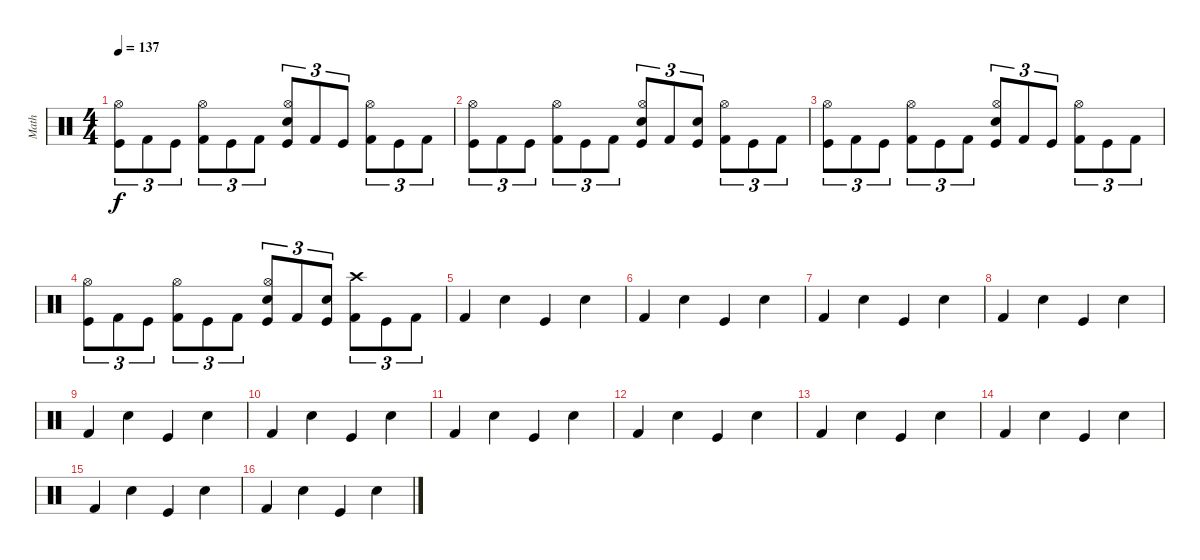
\track ("Math" "Math") {instrument percussion}
\staff {score}
\articulation defaults
\ts (4 4)
\tempo 137
\clef neutral
\ks c
("Kick (hit)" "Hi-Hat (open)").8{tu (3 2) dy f} "Kick (hit) 2".8{tu (3 2)} "Kick (hit)".8{tu (3 2)} ("Kick (hit) 2" "Hi-Hat (open)").8{tu (3 2)} "Kick (hit)".8{tu (3 2)} "Kick (hit) 2".8{tu (3 2)} ("Kick (hit)" "Snare (hit) 2" "Hi-Hat (open)").8{tu (3 2)} "Kick (hit) 2".8{tu (3 2)} "Kick (hit)".8{tu (3 2)} ("Kick (hit) 2" "Hi-Hat (open)").8{tu (3 2)} "Kick (hit)".8{tu (3 2)} "Kick (hit) 2".8{tu (3 2)} |
("Kick (hit)" "Hi-Hat (open)").8{tu (3 2)} "Kick (hit) 2".8{tu (3 2)} "Kick (hit)".8{tu (3 2)} ("Kick (hit) 2" "Hi-Hat (open)").8{tu (3 2)} "Kick (hit)".8{tu (3 2)} "Kick (hit) 2".8{tu (3 2)} ("Kick (hit)" "Snare (hit) 2" "Hi-Hat (open)").8{tu (3 2)} "Kick (hit) 2".8{tu (3 2)} ("Kick (hit)" "Snare (hit) 2").8{tu (3 2)} ("Kick (hit) 2" "Hi-Hat (open)").8{tu (3 2)} "Kick (hit)".8{tu (3 2)} "Kick (hit) 2".8{tu (3 2)} |
("Kick (hit)" "Hi-Hat (open)").8{tu (3 2)} "Kick (hit) 2".8{tu (3 2)} "Kick (hit)".8{tu (3 2)} ("Kick (hit) 2" "Hi-Hat (open)").8{tu (3 2)} "Kick (hit)".8{tu (3 2)} "Kick (hit) 2".8{tu (3 2)} ("Kick (hit)" "Snare (hit) 2" "Hi-Hat (open)").8{tu (3 2)} "Kick (hit) 2".8{tu (3 2)} "Kick (hit)".8{tu (3 2)} ("Kick (hit) 2" "Hi-Hat (open)").8{tu (3 2)} "Kick (hit)".8{tu (3 2)} "Kick (hit) 2".8{tu (3 2)} |
("Kick (hit)" "Hi-Hat (open)").8{tu (3 2)} "Kick (hit) 2".8{tu (3 2)} "Kick (hit)".8{tu (3 2)} ("Kick (hit) 2" "Hi-Hat (open)").8{tu (3 2)} "Kick (hit)".8{tu (3 2)} "Kick (hit) 2".8{tu (3 2)} ("Kick (hit)" "Snare (hit) 2" "Hi-Hat (open)").8{tu (3 2)} "Kick (hit) 2".8{tu (3 2)} ("Kick (hit)" "Snare (hit) 2").8{tu (3 2)} ("Kick (hit) 2" "Crash high (hit)").8{tu (3 2)} "Kick (hit)".8{tu (3 2)} "Kick (hit) 2".8{tu (3 2)} |
"Kick (hit) 2".4 "Electric Snare (hit)".4 "Kick (hit)".4 "Electric Snare (hit)".4 |
"Kick (hit) 2".4 "Electric Snare (hit)".4 "Kick (hit)".4 "Electric Snare (hit)".4 |
"Kick (hit) 2".4 "Electric Snare (hit)".4 "Kick (hit)".4 "Electric Snare (hit)".4 |
"Kick (hit) 2".4 "Electric Snare (hit)".4 "Kick (hit)".4 "Electric Snare (hit)".4 |
"Kick (hit) 2".4 "Electric Snare (hit)".4 "Kick (hit)".4 "Electric Snare (hit)".4 |
"Kick (hit) 2".4 "Electric Snare (hit)".4 "Kick (hit)".4 "Electric Snare (hit)".4 |
"Kick (hit) 2".4 "Electric Snare (hit)".4 "Kick (hit)".4 "Electric Snare (hit)".4 |
"Kick (hit) 2".4 "Electric Snare (hit)".4 "Kick (hit)".4 "Electric Snare (hit)".4 |
"Kick (hit) 2".4 "Electric Snare (hit)".4 "Kick (hit)".4 "Electric Snare (hit)".4 |
"Kick (hit) 2".4 "Electric Snare (hit)".4 "Kick (hit)".4 "Electric Snare (hit)".4 |
"Kick (hit) 2".4 "Electric Snare (hit)".4 "Kick (hit)".4 "Electric Snare (hit)".4 |
"Kick (hit) 2".4 "Electric Snare (hit)".4 "Kick (hit)".4 "Electric Snare (hit)".4
